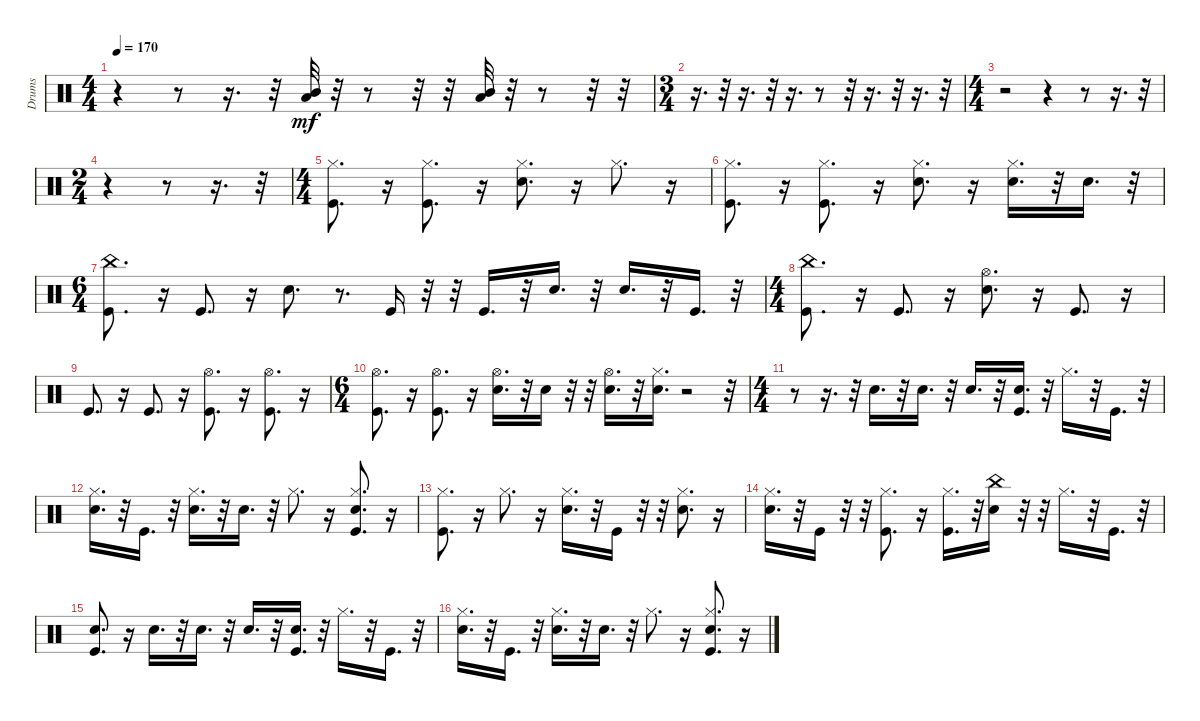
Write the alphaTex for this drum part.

\track ("Drums" "Drums") {instrument percussion}
\staff {score}
\articulation defaults
\ts (4 4)
\tempo 170
\clef neutral
\ks c
r.4{dy mf} r.8 r.16{d} r.32 ("Low Tom (hit)" "Mid Tom (hit)").32 r.32 r.8 r.32 r.32 ("Low Tom (hit)" "Mid Tom (hit)").32 r.32 r.8 r.32 r.32 |
\ts (3 4)
r.16{d} r.32 r.16{d} r.32 r.16{d} r.8 r.32 r.16{d} r.32 r.16{d} r.32 |
\ts (4 4)
r.2 r.4 r.8 r.16{d} r.32 |
\ts (2 4)
r.4 r.8 r.16{d} r.32 |
\ts (4 4)
("Kick (hit)" "Hi-Hat (closed)").8{d} r.16 ("Kick (hit)" "Hi-Hat (closed)").8{d} r.16 ("Snare (hit) 2" "Hi-Hat (closed)").8{d} r.16 "Hi-Hat (closed)".8{d} r.16 |
("Kick (hit)" "Hi-Hat (closed)").8{d} r.16 ("Kick (hit)" "Hi-Hat (closed)").8{d} r.16 ("Snare (hit) 2" "Hi-Hat (closed)").8{d} r.16 ("Snare (hit) 2" "Hi-Hat (closed)").16{d} r.32 "Snare (hit) 2".16{d} r.32 |
\ts (6 4)
("Kick (hit)" "China (hit)").8{d} r.16 "Kick (hit)".8{d} r.16 "Snare (hit) 2".8{d} r.8{d} "Kick (hit)".16 r.32 r.32 "Kick (hit)".16{d} r.32 "Snare (hit) 2".16{d} r.32 "Snare (hit) 2".16{d} r.32 "Kick (hit)".16{d} r.32 |
\ts (4 4)
("Kick (hit)" "China (hit)").8{d} r.16 "Kick (hit)".8{d} r.16 ("Snare (hit) 2" "Hi-Hat (open)").8{d} r.16 "Kick (hit)".8{d} r.16 |
"Kick (hit)".8{d} r.16 "Kick (hit)".8{d} r.16 ("Kick (hit)" "Hi-Hat (open)").8{d} r.16 ("Kick (hit)" "Hi-Hat (open)").8{d} r.16 |
\ts (6 4)
("Kick (hit)" "Hi-Hat (open)").8{d} r.16 ("Kick (hit)" "Hi-Hat (open)").8{d} r.16 ("Snare (hit) 2" "Hi-Hat (open)").16{d} r.32 "Snare (hit) 2".16 r.32 r.32 ("Snare (hit) 2" "Hi-Hat (open)").16{d} r.32 ("Snare (hit) 2" "Hi-Hat (closed)").16{d} r.2 r.32 |
\ts (4 4)
r.8 r.16{d} r.32 "Snare (hit) 2".16{d} r.32 "Snare (hit) 2".16{d} r.32 "Snare (hit) 2".16{d} r.32 ("Kick (hit)" "Snare (hit) 2").16{d} r.32 "Hi-Hat (closed)".16{d} r.32 "Kick (hit)".16{d} r.32 |
("Snare (hit) 2" "Hi-Hat (closed)").16{d} r.32 "Kick (hit)".16{d} r.32 ("Snare (hit) 2" "Hi-Hat (closed)").16{d} r.32 "Snare (hit) 2".16{d} r.32 "Hi-Hat (closed)".8{d} r.16 ("Kick (hit)" "Snare (hit) 2" "Hi-Hat (closed)").8{d} r.16 |
("Kick (hit)" "Hi-Hat (closed)").8{d} r.16 "Hi-Hat (closed)".8{d} r.16 ("Snare (hit) 2" "Hi-Hat (closed)").16{d} r.32 "Kick (hit)".16 r.32 r.32 ("Snare (hit) 2" "Hi-Hat (closed)").8{d} r.16 |
("Snare (hit) 2" "Hi-Hat (closed)").16{d} r.32 "Kick (hit)".16 r.32 r.32 ("Kick (hit)" "Hi-Hat (closed)").8{d} r.16 ("Kick (hit)" "Hi-Hat (closed)").16{d} r.32 ("Snare (hit) 2" "China (hit)").16 r.32 r.32 "Hi-Hat (closed)".16{d} r.32 "Kick (hit)".16{d} r.32 |
("Kick (hit)" "Snare (hit) 2").8{d} r.16 "Snare (hit) 2".16{d} r.32 "Snare (hit) 2".16{d} r.32 "Snare (hit) 2".16{d} r.32 ("Kick (hit)" "Snare (hit) 2").16{d} r.32 "Hi-Hat (closed)".16{d} r.32 "Kick (hit)".16{d} r.32 |
("Snare (hit) 2" "Hi-Hat (closed)").16{d} r.32 "Kick (hit)".16{d} r.32 ("Snare (hit) 2" "Hi-Hat (closed)").16{d} r.32 "Snare (hit) 2".16{d} r.32 "Hi-Hat (closed)".8{d} r.16 ("Kick (hit)" "Snare (hit) 2" "Hi-Hat (closed)").8{d} r.16
